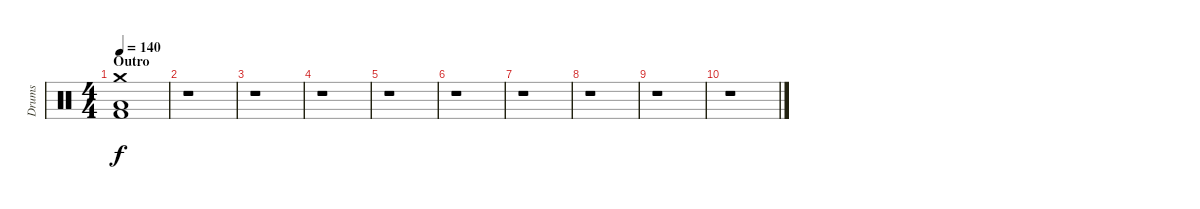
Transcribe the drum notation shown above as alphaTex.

\track ("Drums" "Drums") {instrument percussion}
\staff {score}
\articulation defaults
\ts (4 4)
\section ("" "Outro")
\tempo 140
\clef neutral
\ks c
("Kick (hit) 2" "Low Tom (hit)" "Crash medium (hit)").1{dy f} |
r.1 |
r.1 |
r.1 |
r.1 |
r.1 |
r.1 |
r.1 |
r.1 |
r.1
